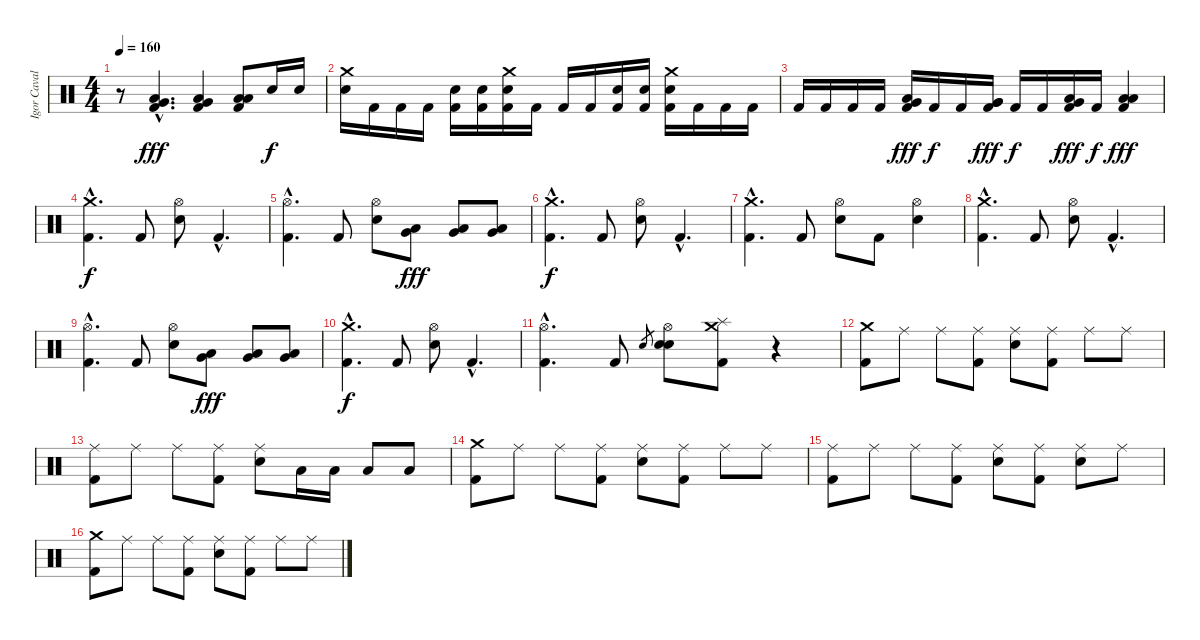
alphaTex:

\track ("Igor Cavalera" "Igor Caval") {instrument percussion}
\staff {score}
\articulation defaults
\ts (4 4)
\tempo 160
\clef neutral
\ks c
r.8{dy fff} ("Kick (hit) 2"{hac} "Low Floor Tom (hit)"{hac} "Very Low Tom (hit)"{hac}).4{d} ("Kick (hit) 2" "Low Floor Tom (hit)" "Very Low Tom (hit)").4 ("Kick (hit) 2" "Low Floor Tom (hit)" "Low Tom (hit)").8 "Electric Snare (hit)".16{dy f} "Electric Snare (hit)".16 |
("Electric Snare (hit)" "Crash medium (hit)").16 "Kick (hit) 2".16 "Kick (hit) 2".16 "Kick (hit) 2".16 ("Electric Snare (hit)" "Kick (hit) 2").16 ("Electric Snare (hit)" "Kick (hit) 2").16 ("Electric Snare (hit)" "Kick (hit) 2" "Crash medium (hit)").16 "Kick (hit) 2".16 "Kick (hit) 2".16 "Kick (hit) 2".16 ("Electric Snare (hit)" "Kick (hit) 2").16 ("Electric Snare (hit)" "Kick (hit) 2").16 ("Crash medium (hit)" "Kick (hit) 2" "Electric Snare (hit)").16 "Kick (hit) 2".16 "Kick (hit) 2".16 "Kick (hit) 2".16 |
"Kick (hit) 2".16 "Kick (hit) 2".16 "Kick (hit) 2".16 "Kick (hit) 2".16 ("Low Tom (hit)" "Very Low Tom (hit)" "Kick (hit) 2").16{dy fff} "Kick (hit) 2".16{dy f} "Kick (hit) 2".16 ("Very Low Tom (hit)" "Very Low Tom (hit)" "Kick (hit) 2").16{dy fff} "Kick (hit) 2".16{dy f} "Kick (hit) 2".16 ("Low Floor Tom (hit)" "Very Low Tom (hit)" "Kick (hit) 2").16{dy fff} "Kick (hit) 2".16{dy f} ("Low Floor Tom (hit)" "Low Floor Tom (hit)" "Kick (hit) 2").4{dy fff} |
("Kick (hit) 2"{hac} "Crash medium (hit)"{hac}).4{d dy f} "Kick (hit) 2".8 ("Electric Snare (hit)" "Hi-Hat (open)").8 "Kick (hit) 2"{hac}.4{d} |
("Kick (hit) 2"{hac} "Hi-Hat (open)"{hac}).4{d} "Kick (hit) 2".8 ("Electric Snare (hit)" "Hi-Hat (open)").8 ("Low Tom (hit)" "Very Low Tom (hit)").8{dy fff} ("Low Tom (hit)" "Very Low Tom (hit)").8 ("Low Tom (hit)" "Very Low Tom (hit)").8 |
("Kick (hit) 2"{hac} "Crash medium (hit)"{hac}).4{d dy f} "Kick (hit) 2".8 ("Electric Snare (hit)" "Hi-Hat (open)").8 "Kick (hit) 2"{hac}.4{d} |
("Kick (hit) 2"{hac} "Crash medium (hit)"{hac}).4{d} "Kick (hit) 2".8 ("Electric Snare (hit)" "Hi-Hat (open)").8 "Kick (hit) 2".8 ("Hi-Hat (open)" "Electric Snare (hit)").4 |
("Kick (hit) 2"{hac} "Crash medium (hit)"{hac}).4{d} "Kick (hit) 2".8 ("Electric Snare (hit)" "Hi-Hat (open)").8 "Kick (hit) 2"{hac}.4{d} |
("Kick (hit) 2"{hac} "Hi-Hat (open)"{hac}).4{d} "Kick (hit) 2".8 ("Electric Snare (hit)" "Hi-Hat (open)").8 ("Low Tom (hit)" "Very Low Tom (hit)").8{dy fff} ("Low Tom (hit)" "Very Low Tom (hit)").8 ("Low Tom (hit)" "Very Low Tom (hit)").8 |
("Kick (hit) 2"{hac} "Crash medium (hit)"{hac}).4{d dy f} "Kick (hit) 2".8 ("Electric Snare (hit)" "Hi-Hat (open)").8 "Kick (hit) 2"{hac}.4{d} |
("Kick (hit) 2"{hac} "Hi-Hat (open)"{hac}).4{d} "Kick (hit) 2".8 "Electric Snare (hit)".8{gr} ("Electric Snare (hit)" "Electric Snare (hit)" "Hi-Hat (open)").8 ("Kick (hit) 2" "Crash medium (hit)" "Splash (hit)").8 r.4 |
("Kick (hit) 2" "Crash medium (hit)").8 "Ride (middle)".8 "Ride (middle)".8 ("Kick (hit) 2" "Ride (middle)").8 ("Electric Snare (hit)" "Ride (middle)").8 ("Kick (hit) 2" "Ride (middle)").8 "Ride (middle)".8 "Ride (middle)".8 |
("Kick (hit) 2" "Ride (middle)").8 "Ride (middle)".8 "Ride (middle)".8 ("Kick (hit) 2" "Ride (middle)").8 ("Electric Snare (hit)" "Ride (middle)").8 "Low Tom (hit)".16 "Low Tom (hit)".16 "Low Tom (hit)".8 "Low Tom (hit)".8 |
("Kick (hit) 2" "Crash medium (hit)").8 "Ride (middle)".8 "Ride (middle)".8 ("Kick (hit) 2" "Ride (middle)").8 ("Electric Snare (hit)" "Ride (middle)").8 ("Kick (hit) 2" "Ride (middle)").8 "Ride (middle)".8 "Ride (middle)".8 |
("Kick (hit) 2" "Ride (middle)").8 "Ride (middle)".8 "Ride (middle)".8 ("Kick (hit) 2" "Ride (middle)").8 ("Electric Snare (hit)" "Ride (middle)").8 ("Kick (hit) 2" "Ride (middle)").8 ("Electric Snare (hit)" "Ride (middle)").8 "Ride (middle)".8 |
("Kick (hit) 2" "Crash medium (hit)").8 "Ride (middle)".8 "Ride (middle)".8 ("Kick (hit) 2" "Ride (middle)").8 ("Electric Snare (hit)" "Ride (middle)").8 ("Kick (hit) 2" "Ride (middle)").8 "Ride (middle)".8 "Ride (middle)".8
